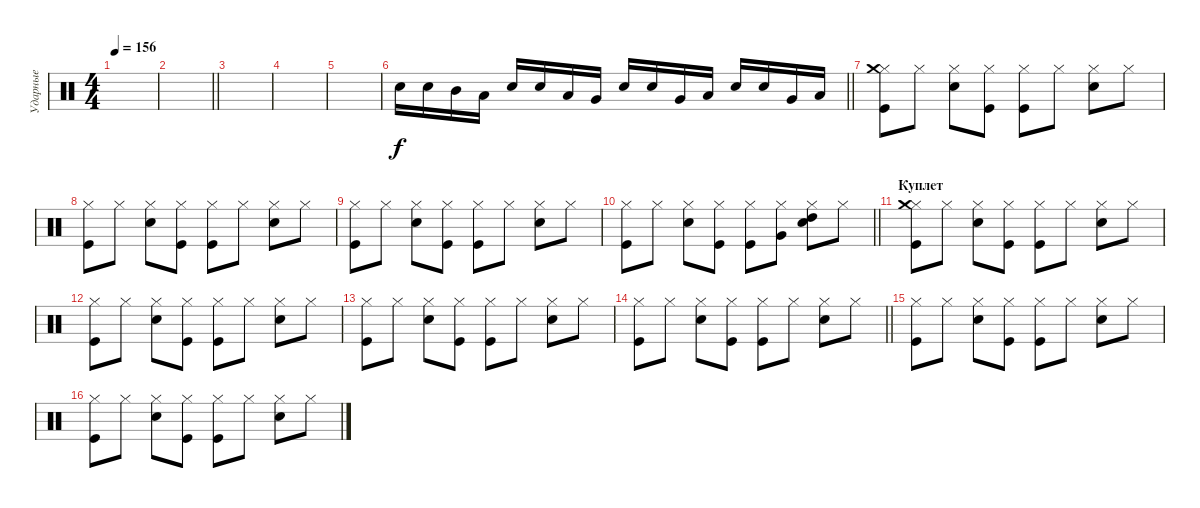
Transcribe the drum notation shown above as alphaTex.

\track ("Ударные" "Ударные") {instrument percussion}
\staff {score}
\articulation defaults
\ts (4 4)
\tempo 156
\clef neutral
\ks c
|
\barLineRight lightlight
|
|
|
|
\barLineRight lightlight "Snare (hit) 2".16 "Snare (hit) 2".16 "Mid Tom (hit)".16 "Low Tom (hit)".16 "Snare (hit) 2".16 "Snare (hit) 2".16 "Low Tom (hit)".16 "Very Low Tom (hit)".16 "Snare (hit) 2".16 "Snare (hit) 2".16 "Very Low Tom (hit)".16 "Low Floor Tom (hit)".16 "Snare (hit) 2".16 "Snare (hit) 2".16 "Very Low Tom (hit)".16 "Low Floor Tom (hit)".16
|
("Hi-Hat (closed)" "Kick (hit)" "Crash medium (hit)").8 "Hi-Hat (closed)".8 ("Hi-Hat (closed)" "Snare (hit) 2").8 ("Hi-Hat (closed)" "Kick (hit)").8 ("Hi-Hat (closed)" "Kick (hit)").8 "Hi-Hat (closed)".8 ("Hi-Hat (closed)" "Snare (hit) 2").8 "Hi-Hat (closed)".8 |
("Hi-Hat (closed)" "Kick (hit)").8 "Hi-Hat (closed)".8 ("Hi-Hat (closed)" "Snare (hit) 2").8 ("Hi-Hat (closed)" "Kick (hit)").8 ("Hi-Hat (closed)" "Kick (hit)").8 "Hi-Hat (closed)".8 ("Hi-Hat (closed)" "Snare (hit) 2").8 "Hi-Hat (closed)".8 |
("Hi-Hat (closed)" "Kick (hit)").8 "Hi-Hat (closed)".8 ("Hi-Hat (closed)" "Snare (hit) 2").8 ("Hi-Hat (closed)" "Kick (hit)").8 ("Hi-Hat (closed)" "Kick (hit)").8 "Hi-Hat (closed)".8 ("Hi-Hat (closed)" "Snare (hit) 2").8 "Hi-Hat (closed)".8 |
\barLineRight lightlight
("Hi-Hat (closed)" "Kick (hit)").8 "Hi-Hat (closed)".8 ("Hi-Hat (closed)" "Snare (hit) 2").8 ("Hi-Hat (closed)" "Kick (hit)").8 ("Hi-Hat (closed)" "Kick (hit)").8 ("Hi-Hat (closed)" "Very Low Tom (hit)").8 ("Hi-Hat (closed)" "Snare (hit) 2" "High Tom (hit)").8 "Hi-Hat (closed)".8 |
\section ("" "Куплет")
("Hi-Hat (closed)" "Kick (hit)" "Crash medium (hit)").8 "Hi-Hat (closed)".8 ("Hi-Hat (closed)" "Snare (hit) 2").8 ("Hi-Hat (closed)" "Kick (hit)").8 ("Hi-Hat (closed)" "Kick (hit)").8 "Hi-Hat (closed)".8 ("Hi-Hat (closed)" "Snare (hit) 2").8 "Hi-Hat (closed)".8 |
("Hi-Hat (closed)" "Kick (hit)").8 "Hi-Hat (closed)".8 ("Hi-Hat (closed)" "Snare (hit) 2").8 ("Hi-Hat (closed)" "Kick (hit)").8 ("Hi-Hat (closed)" "Kick (hit)").8 "Hi-Hat (closed)".8 ("Hi-Hat (closed)" "Snare (hit) 2").8 "Hi-Hat (closed)".8 |
("Hi-Hat (closed)" "Kick (hit)").8 "Hi-Hat (closed)".8 ("Hi-Hat (closed)" "Snare (hit) 2").8 ("Hi-Hat (closed)" "Kick (hit)").8 ("Hi-Hat (closed)" "Kick (hit)").8 "Hi-Hat (closed)".8 ("Hi-Hat (closed)" "Snare (hit) 2").8 "Hi-Hat (closed)".8 |
\barLineRight lightlight
("Hi-Hat (closed)" "Kick (hit)").8 "Hi-Hat (closed)".8 ("Hi-Hat (closed)" "Snare (hit) 2").8 ("Hi-Hat (closed)" "Kick (hit)").8 ("Hi-Hat (closed)" "Kick (hit)").8 "Hi-Hat (closed)".8 ("Hi-Hat (closed)" "Snare (hit) 2").8 "Hi-Hat (closed)".8 |
("Hi-Hat (closed)" "Kick (hit)").8 "Hi-Hat (closed)".8 ("Hi-Hat (closed)" "Snare (hit) 2").8 ("Hi-Hat (closed)" "Kick (hit)").8 ("Hi-Hat (closed)" "Kick (hit)").8 "Hi-Hat (closed)".8 ("Hi-Hat (closed)" "Snare (hit) 2").8 "Hi-Hat (closed)".8 |
("Hi-Hat (closed)" "Kick (hit)").8 "Hi-Hat (closed)".8 ("Hi-Hat (closed)" "Snare (hit) 2").8 ("Hi-Hat (closed)" "Kick (hit)").8 ("Hi-Hat (closed)" "Kick (hit)").8 "Hi-Hat (closed)".8 ("Hi-Hat (closed)" "Snare (hit) 2").8 "Hi-Hat (closed)".8
